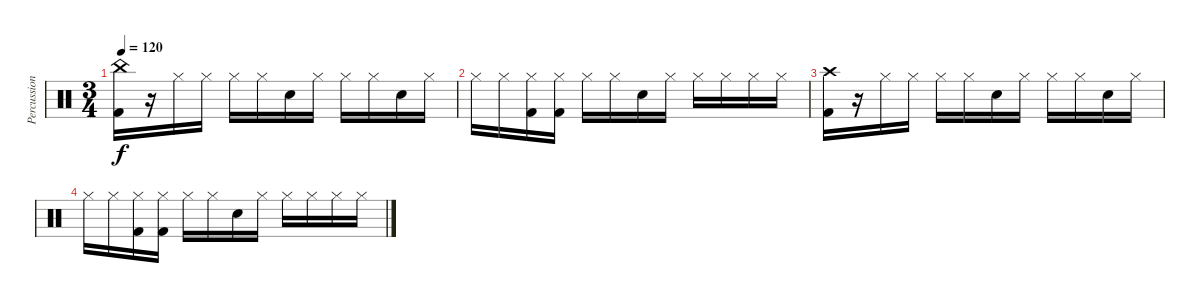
\track ("Percussion" "Percussion") {instrument percussion bank 129}
\staff {score}
\articulation defaults
\ts (3 4)
\tempo 120
\clef neutral
\ks c
("China (hit)" "Kick (hit) 2").16{dy f} r.16 "Hi-Hat (closed)".16 "Hi-Hat (closed)".16 "Hi-Hat (closed)".16 "Hi-Hat (closed)".16 "Electric Snare (hit)".16 "Hi-Hat (closed)".16 "Hi-Hat (closed)".16 "Hi-Hat (closed)".16 "Electric Snare (hit)".16 "Hi-Hat (closed)".16 |
"Hi-Hat (closed)".16 "Hi-Hat (closed)".16 ("Hi-Hat (closed)" "Kick (hit) 2").16 ("Hi-Hat (closed)" "Kick (hit) 2").16 "Hi-Hat (closed)".16 "Hi-Hat (closed)".16 "Electric Snare (hit)".16 "Hi-Hat (closed)".16 "Hi-Hat (closed)".16 "Hi-Hat (closed)".16 "Hi-Hat (closed)".16 "Hi-Hat (closed)".16 |
("Crash high (hit)" "Kick (hit) 2").16 r.16 "Hi-Hat (closed)".16 "Hi-Hat (closed)".16 "Hi-Hat (closed)".16 "Hi-Hat (closed)".16 "Electric Snare (hit)".16 "Hi-Hat (closed)".16 "Hi-Hat (closed)".16 "Hi-Hat (closed)".16 "Electric Snare (hit)".16 "Hi-Hat (closed)".16 |
"Hi-Hat (closed)".16 "Hi-Hat (closed)".16 ("Hi-Hat (closed)" "Kick (hit) 2").16 ("Hi-Hat (closed)" "Kick (hit) 2").16 "Hi-Hat (closed)".16 "Hi-Hat (closed)".16 "Electric Snare (hit)".16 "Hi-Hat (closed)".16 "Hi-Hat (closed)".16 "Hi-Hat (closed)".16 "Hi-Hat (closed)".16 "Hi-Hat (closed)".16
